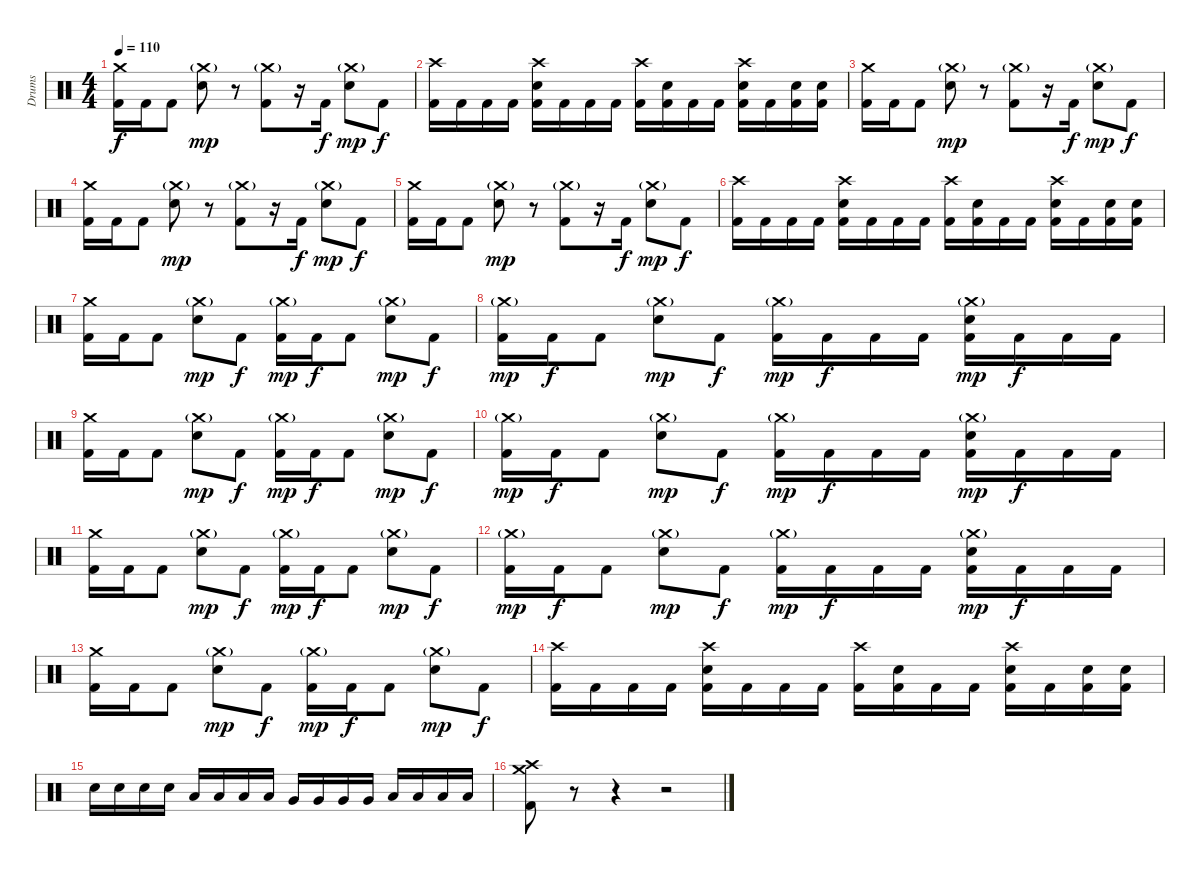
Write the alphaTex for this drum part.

\track ("Drums" "Drums") {instrument percussion}
\staff {score}
\articulation defaults
\ts (4 4)
\tempo 110
\clef neutral
\ks c
("Crash medium (hit)" "Kick (hit) 2").16{dy f} "Kick (hit) 2".16 "Kick (hit) 2".8 ("Crash medium (hit)"{g} "Electric Snare (hit)").8{dy mp} r.8 ("Crash medium (hit)"{g} "Kick (hit) 2").8 r.16 "Kick (hit) 2".16{dy f} ("Crash medium (hit)"{g} "Electric Snare (hit)").8{dy mp} "Kick (hit) 2".8{dy f} |
("Crash high (hit)" "Kick (hit) 2").16 "Kick (hit) 2".16 "Kick (hit) 2".16 "Kick (hit) 2".16 ("Crash high (hit)" "Electric Snare (hit)" "Kick (hit) 2").16 "Kick (hit) 2".16 "Kick (hit) 2".16 "Kick (hit) 2".16 ("Crash high (hit)" "Kick (hit) 2").16 ("Electric Snare (hit)" "Kick (hit) 2").16 "Kick (hit) 2".16 "Kick (hit) 2".16 ("Crash high (hit)" "Electric Snare (hit)" "Kick (hit) 2").16 "Kick (hit) 2".16 ("Electric Snare (hit)" "Kick (hit) 2").16 ("Electric Snare (hit)" "Kick (hit) 2").16 |
("Crash medium (hit)" "Kick (hit) 2").16 "Kick (hit) 2".16 "Kick (hit) 2".8 ("Crash medium (hit)"{g} "Electric Snare (hit)").8{dy mp} r.8 ("Crash medium (hit)"{g} "Kick (hit) 2").8 r.16 "Kick (hit) 2".16{dy f} ("Crash medium (hit)"{g} "Electric Snare (hit)").8{dy mp} "Kick (hit) 2".8{dy f} |
("Crash medium (hit)" "Kick (hit) 2").16 "Kick (hit) 2".16 "Kick (hit) 2".8 ("Crash medium (hit)"{g} "Electric Snare (hit)").8{dy mp} r.8 ("Crash medium (hit)"{g} "Kick (hit) 2").8 r.16 "Kick (hit) 2".16{dy f} ("Crash medium (hit)"{g} "Electric Snare (hit)").8{dy mp} "Kick (hit) 2".8{dy f} |
("Crash medium (hit)" "Kick (hit) 2").16 "Kick (hit) 2".16 "Kick (hit) 2".8 ("Crash medium (hit)"{g} "Electric Snare (hit)").8{dy mp} r.8 ("Crash medium (hit)"{g} "Kick (hit) 2").8 r.16 "Kick (hit) 2".16{dy f} ("Crash medium (hit)"{g} "Electric Snare (hit)").8{dy mp} "Kick (hit) 2".8{dy f} |
("Crash high (hit)" "Kick (hit) 2").16 "Kick (hit) 2".16 "Kick (hit) 2".16 "Kick (hit) 2".16 ("Crash high (hit)" "Electric Snare (hit)" "Kick (hit) 2").16 "Kick (hit) 2".16 "Kick (hit) 2".16 "Kick (hit) 2".16 ("Crash high (hit)" "Kick (hit) 2").16 ("Electric Snare (hit)" "Kick (hit) 2").16 "Kick (hit) 2".16 "Kick (hit) 2".16 ("Crash high (hit)" "Electric Snare (hit)" "Kick (hit) 2").16 "Kick (hit) 2".16 ("Electric Snare (hit)" "Kick (hit) 2").16 ("Electric Snare (hit)" "Kick (hit) 2").16 |
("Crash medium (hit)" "Kick (hit) 2").16 "Kick (hit) 2".16 "Kick (hit) 2".8 ("Crash medium (hit)"{g} "Electric Snare (hit)").8{dy mp} "Kick (hit) 2".8{dy f} ("Crash medium (hit)"{g} "Kick (hit) 2").16{dy mp} "Kick (hit) 2".16{dy f} "Kick (hit) 2".8 ("Crash medium (hit)"{g} "Electric Snare (hit)").8{dy mp} "Kick (hit) 2".8{dy f} |
("Crash medium (hit)"{g} "Kick (hit) 2").16{dy mp} "Kick (hit) 2".16{dy f} "Kick (hit) 2".8 ("Crash medium (hit)"{g} "Electric Snare (hit)").8{dy mp} "Kick (hit) 2".8{dy f} ("Crash medium (hit)"{g} "Kick (hit) 2").16{dy mp} "Kick (hit) 2".16{dy f} "Kick (hit) 2".16 "Kick (hit) 2".16 ("Crash medium (hit)"{g} "Electric Snare (hit)" "Kick (hit) 2").16{dy mp} "Kick (hit) 2".16{dy f} "Kick (hit) 2".16 "Kick (hit) 2".16 |
("Crash medium (hit)" "Kick (hit) 2").16 "Kick (hit) 2".16 "Kick (hit) 2".8 ("Crash medium (hit)"{g} "Electric Snare (hit)").8{dy mp} "Kick (hit) 2".8{dy f} ("Crash medium (hit)"{g} "Kick (hit) 2").16{dy mp} "Kick (hit) 2".16{dy f} "Kick (hit) 2".8 ("Crash medium (hit)"{g} "Electric Snare (hit)").8{dy mp} "Kick (hit) 2".8{dy f} |
("Crash medium (hit)"{g} "Kick (hit) 2").16{dy mp} "Kick (hit) 2".16{dy f} "Kick (hit) 2".8 ("Crash medium (hit)"{g} "Electric Snare (hit)").8{dy mp} "Kick (hit) 2".8{dy f} ("Crash medium (hit)"{g} "Kick (hit) 2").16{dy mp} "Kick (hit) 2".16{dy f} "Kick (hit) 2".16 "Kick (hit) 2".16 ("Crash medium (hit)"{g} "Electric Snare (hit)" "Kick (hit) 2").16{dy mp} "Kick (hit) 2".16{dy f} "Kick (hit) 2".16 "Kick (hit) 2".16 |
("Crash medium (hit)" "Kick (hit) 2").16 "Kick (hit) 2".16 "Kick (hit) 2".8 ("Crash medium (hit)"{g} "Electric Snare (hit)").8{dy mp} "Kick (hit) 2".8{dy f} ("Crash medium (hit)"{g} "Kick (hit) 2").16{dy mp} "Kick (hit) 2".16{dy f} "Kick (hit) 2".8 ("Crash medium (hit)"{g} "Electric Snare (hit)").8{dy mp} "Kick (hit) 2".8{dy f} |
("Crash medium (hit)"{g} "Kick (hit) 2").16{dy mp} "Kick (hit) 2".16{dy f} "Kick (hit) 2".8 ("Crash medium (hit)"{g} "Electric Snare (hit)").8{dy mp} "Kick (hit) 2".8{dy f} ("Crash medium (hit)"{g} "Kick (hit) 2").16{dy mp} "Kick (hit) 2".16{dy f} "Kick (hit) 2".16 "Kick (hit) 2".16 ("Crash medium (hit)"{g} "Electric Snare (hit)" "Kick (hit) 2").16{dy mp} "Kick (hit) 2".16{dy f} "Kick (hit) 2".16 "Kick (hit) 2".16 |
("Crash medium (hit)" "Kick (hit) 2").16 "Kick (hit) 2".16 "Kick (hit) 2".8 ("Crash medium (hit)"{g} "Electric Snare (hit)").8{dy mp} "Kick (hit) 2".8{dy f} ("Crash medium (hit)"{g} "Kick (hit) 2").16{dy mp} "Kick (hit) 2".16{dy f} "Kick (hit) 2".8 ("Crash medium (hit)"{g} "Electric Snare (hit)").8{dy mp} "Kick (hit) 2".8{dy f} |
("Crash high (hit)" "Kick (hit) 2").16 "Kick (hit) 2".16 "Kick (hit) 2".16 "Kick (hit) 2".16 ("Crash high (hit)" "Electric Snare (hit)" "Kick (hit) 2").16 "Kick (hit) 2".16 "Kick (hit) 2".16 "Kick (hit) 2".16 ("Crash high (hit)" "Kick (hit) 2").16 ("Electric Snare (hit)" "Kick (hit) 2").16 "Kick (hit) 2".16 "Kick (hit) 2".16 ("Crash high (hit)" "Electric Snare (hit)" "Kick (hit) 2").16 "Kick (hit) 2".16 ("Electric Snare (hit)" "Kick (hit) 2").16 ("Electric Snare (hit)" "Kick (hit) 2").16 |
"Electric Snare (hit)".16 "Electric Snare (hit)".16 "Electric Snare (hit)".16 "Electric Snare (hit)".16 "Low Tom (hit)".16 "Low Tom (hit)".16 "Low Tom (hit)".16 "Low Tom (hit)".16 "Very Low Tom (hit)".16 "Very Low Tom (hit)".16 "Very Low Tom (hit)".16 "Very Low Tom (hit)".16 "Low Floor Tom (hit)".16 "Low Floor Tom (hit)".16 "Low Floor Tom (hit)".16 "Low Floor Tom (hit)".16 |
("Crash high (hit)" "Crash medium (hit)" "Kick (hit) 2").8 r.8 r.4 r.2
